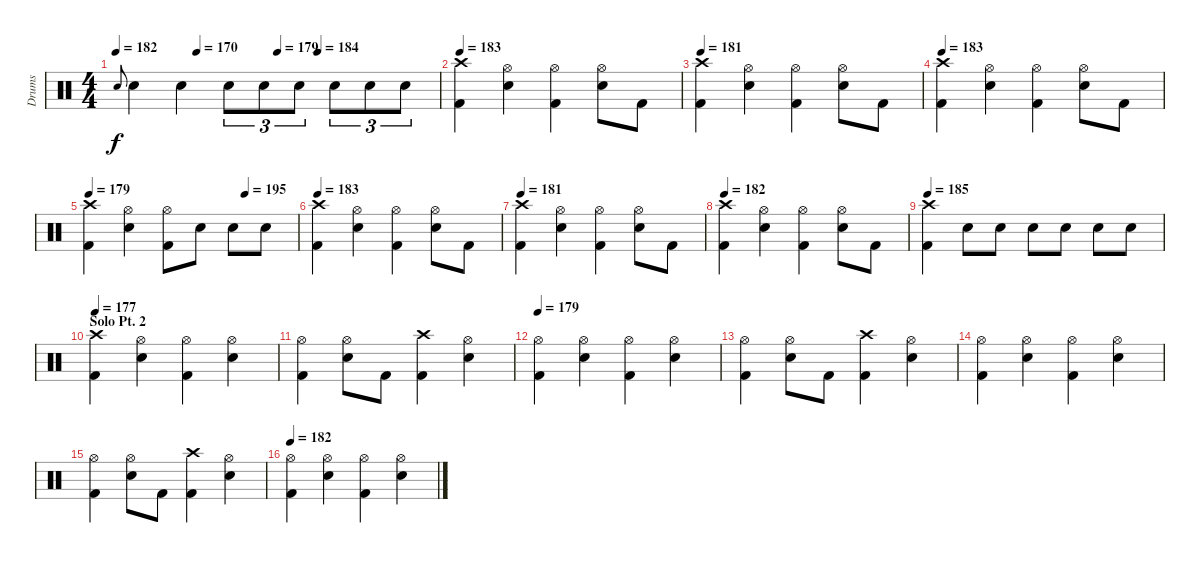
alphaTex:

\track ("Drums" "Drums") {instrument percussion}
\staff {score}
\articulation defaults
\ts (4 4)
\tempo 182
\tempo (170 0.25)
\tempo (179 0.5)
\tempo (184 0.625)
\clef neutral
\ks c "Snare (hit)".8{gr onbeat dy f} "Snare (hit) 2".4 "Snare (hit) 2".4 "Snare (hit) 2".8{tu (3 2)} "Snare (hit) 2".8{tu (3 2)} "Snare (hit) 2".8{tu (3 2)} "Snare (hit) 2".8{tu (3 2)} "Snare (hit) 2".8{tu (3 2)} "Snare (hit) 2".8{tu (3 2)}
|
\tempo 183
("Kick (hit) 2" "Crash high (hit)").4 ("Snare (hit) 2" "Hi-Hat (open)").4 ("Hi-Hat (open)" "Kick (hit) 2").4 ("Hi-Hat (open)" "Snare (hit) 2").8 "Kick (hit) 2".8 |
\tempo 181
("Kick (hit) 2" "Crash high (hit)").4 ("Snare (hit) 2" "Hi-Hat (open)").4 ("Hi-Hat (open)" "Kick (hit) 2").4 ("Hi-Hat (open)" "Snare (hit) 2").8 "Kick (hit) 2".8 |
\tempo 183
("Kick (hit) 2" "Crash high (hit)").4 ("Snare (hit) 2" "Hi-Hat (open)").4 ("Hi-Hat (open)" "Kick (hit) 2").4 ("Hi-Hat (open)" "Snare (hit) 2").8 "Kick (hit) 2".8 |
\tempo 179
\tempo (195 0.75)
("Kick (hit) 2" "Crash high (hit)").4 ("Snare (hit) 2" "Hi-Hat (open)").4 ("Hi-Hat (open)" "Kick (hit) 2").8 "Snare (hit) 2".8 "Snare (hit) 2".8 "Snare (hit) 2".8 |
\tempo 183
("Kick (hit) 2" "Crash high (hit)").4 ("Snare (hit) 2" "Hi-Hat (open)").4 ("Hi-Hat (open)" "Kick (hit) 2").4 ("Hi-Hat (open)" "Snare (hit) 2").8 "Kick (hit) 2".8 |
\tempo 181
("Kick (hit) 2" "Crash high (hit)").4 ("Snare (hit) 2" "Hi-Hat (open)").4 ("Hi-Hat (open)" "Kick (hit) 2").4 ("Hi-Hat (open)" "Snare (hit) 2").8 "Kick (hit) 2".8 |
\tempo 182
("Kick (hit) 2" "Crash high (hit)").4 ("Snare (hit) 2" "Hi-Hat (open)").4 ("Hi-Hat (open)" "Kick (hit) 2").4 ("Hi-Hat (open)" "Snare (hit) 2").8 "Kick (hit) 2".8 |
\tempo 185
("Kick (hit) 2" "Crash high (hit)").4 "Snare (hit) 2".8 "Snare (hit) 2".8 "Snare (hit) 2".8 "Snare (hit) 2".8 "Snare (hit) 2".8 "Snare (hit) 2".8 |
\section ("" "Solo Pt. 2")
\tempo 177
("Crash high (hit)" "Kick (hit) 2").4 ("Snare (hit) 2" "Hi-Hat (open)").4 ("Kick (hit) 2" "Hi-Hat (open)").4 ("Snare (hit) 2" "Hi-Hat (open)").4 |
("Kick (hit) 2" "Hi-Hat (open)").4 ("Snare (hit) 2" "Hi-Hat (open)").8 "Kick (hit) 2".8 ("Kick (hit) 2" "Crash high (hit)").4 ("Snare (hit) 2" "Hi-Hat (open)").4 |
\tempo 179
("Kick (hit) 2" "Hi-Hat (open)").4 ("Snare (hit) 2" "Hi-Hat (open)").4 ("Kick (hit) 2" "Hi-Hat (open)").4 ("Snare (hit) 2" "Hi-Hat (open)").4 |
("Kick (hit) 2" "Hi-Hat (open)").4 ("Snare (hit) 2" "Hi-Hat (open)").8 "Kick (hit) 2".8 ("Kick (hit) 2" "Crash high (hit)").4 ("Snare (hit) 2" "Hi-Hat (open)").4 |
("Kick (hit) 2" "Hi-Hat (open)").4 ("Snare (hit) 2" "Hi-Hat (open)").4 ("Kick (hit) 2" "Hi-Hat (open)").4 ("Snare (hit) 2" "Hi-Hat (open)").4 |
("Kick (hit) 2" "Hi-Hat (open)").4 ("Snare (hit) 2" "Hi-Hat (open)").8 "Kick (hit) 2".8 ("Kick (hit) 2" "Crash high (hit)").4 ("Snare (hit) 2" "Hi-Hat (open)").4 |
\tempo 182
("Kick (hit) 2" "Hi-Hat (open)").4 ("Snare (hit) 2" "Hi-Hat (open)").4 ("Kick (hit) 2" "Hi-Hat (open)").4 ("Snare (hit) 2" "Hi-Hat (open)").4
